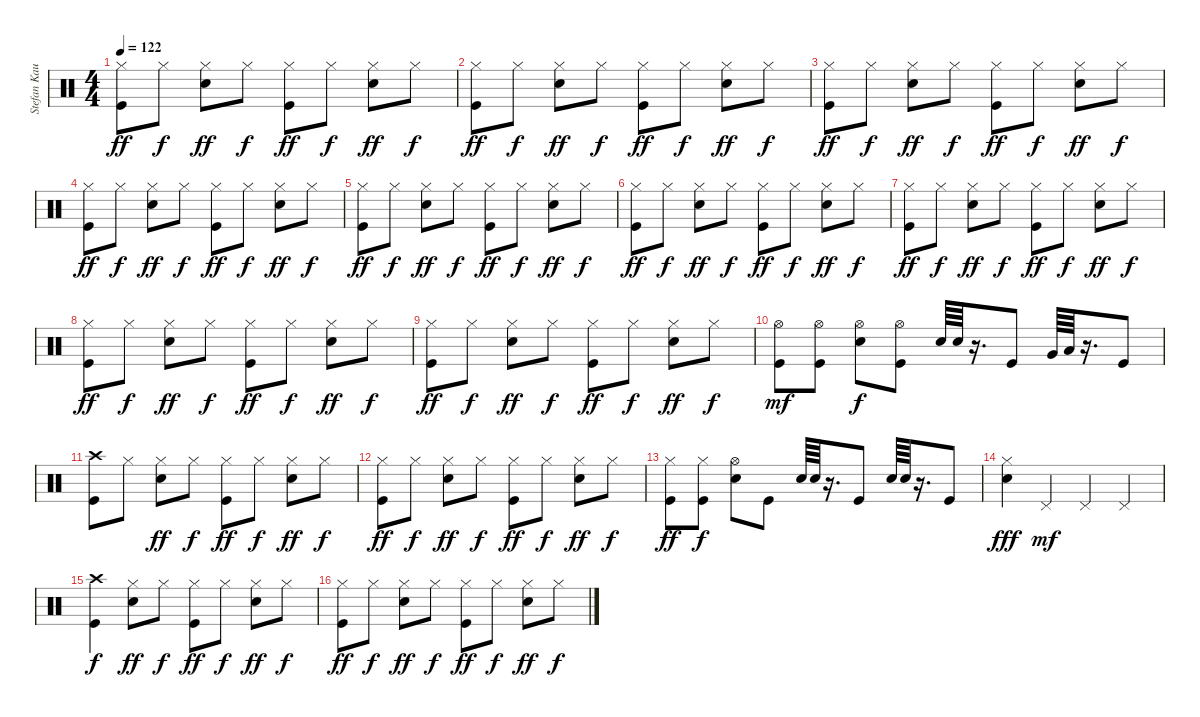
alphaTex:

\track ("Stefan Kaufmann" "Stefan Kau") {instrument percussion}
\staff {score}
\articulation defaults
\ts (4 4)
\tempo 122
\clef neutral
\ks c
("Hi-Hat (closed)" "Kick (hit)").8{dy ff} "Hi-Hat (closed)".8{dy f} ("Hi-Hat (closed)" "Snare (hit) 2").8{dy ff} "Hi-Hat (closed)".8{dy f} ("Hi-Hat (closed)" "Kick (hit)").8{dy ff} "Hi-Hat (closed)".8{dy f} ("Hi-Hat (closed)" "Snare (hit) 2").8{dy ff} "Hi-Hat (closed)".8{dy f} |
("Hi-Hat (closed)" "Kick (hit)").8{dy ff} "Hi-Hat (closed)".8{dy f} ("Hi-Hat (closed)" "Snare (hit) 2").8{dy ff} "Hi-Hat (closed)".8{dy f} ("Hi-Hat (closed)" "Kick (hit)").8{dy ff} "Hi-Hat (closed)".8{dy f} ("Hi-Hat (closed)" "Snare (hit) 2").8{dy ff} "Hi-Hat (closed)".8{dy f} |
("Hi-Hat (closed)" "Kick (hit)").8{dy ff} "Hi-Hat (closed)".8{dy f} ("Hi-Hat (closed)" "Snare (hit) 2").8{dy ff} "Hi-Hat (closed)".8{dy f} ("Hi-Hat (closed)" "Kick (hit)").8{dy ff} "Hi-Hat (closed)".8{dy f} ("Hi-Hat (closed)" "Snare (hit) 2").8{dy ff} "Hi-Hat (closed)".8{dy f} |
("Hi-Hat (closed)" "Kick (hit)").8{dy ff} "Hi-Hat (closed)".8{dy f} ("Hi-Hat (closed)" "Snare (hit) 2").8{dy ff} "Hi-Hat (closed)".8{dy f} ("Hi-Hat (closed)" "Kick (hit)").8{dy ff} "Hi-Hat (closed)".8{dy f} ("Hi-Hat (closed)" "Snare (hit) 2").8{dy ff} "Hi-Hat (closed)".8{dy f} |
("Hi-Hat (closed)" "Kick (hit)").8{dy ff} "Hi-Hat (closed)".8{dy f} ("Hi-Hat (closed)" "Snare (hit) 2").8{dy ff} "Hi-Hat (closed)".8{dy f} ("Hi-Hat (closed)" "Kick (hit)").8{dy ff} "Hi-Hat (closed)".8{dy f} ("Hi-Hat (closed)" "Snare (hit) 2").8{dy ff} "Hi-Hat (closed)".8{dy f} |
("Hi-Hat (closed)" "Kick (hit)").8{dy ff} "Hi-Hat (closed)".8{dy f} ("Hi-Hat (closed)" "Snare (hit) 2").8{dy ff} "Hi-Hat (closed)".8{dy f} ("Hi-Hat (closed)" "Kick (hit)").8{dy ff} "Hi-Hat (closed)".8{dy f} ("Hi-Hat (closed)" "Snare (hit) 2").8{dy ff} "Hi-Hat (closed)".8{dy f} |
("Hi-Hat (closed)" "Kick (hit)").8{dy ff} "Hi-Hat (closed)".8{dy f} ("Hi-Hat (closed)" "Snare (hit) 2").8{dy ff} "Hi-Hat (closed)".8{dy f} ("Hi-Hat (closed)" "Kick (hit)").8{dy ff} "Hi-Hat (closed)".8{dy f} ("Hi-Hat (closed)" "Snare (hit) 2").8{dy ff} "Hi-Hat (closed)".8{dy f} |
("Hi-Hat (closed)" "Kick (hit)").8{dy ff} "Hi-Hat (closed)".8{dy f} ("Hi-Hat (closed)" "Snare (hit) 2").8{dy ff} "Hi-Hat (closed)".8{dy f} ("Hi-Hat (closed)" "Kick (hit)").8{dy ff} "Hi-Hat (closed)".8{dy f} ("Hi-Hat (closed)" "Snare (hit) 2").8{dy ff} "Hi-Hat (closed)".8{dy f} |
("Hi-Hat (closed)" "Kick (hit)").8{dy ff} "Hi-Hat (closed)".8{dy f} ("Hi-Hat (closed)" "Snare (hit) 2").8{dy ff} "Hi-Hat (closed)".8{dy f} ("Hi-Hat (closed)" "Kick (hit)").8{dy ff} "Hi-Hat (closed)".8{dy f} ("Hi-Hat (closed)" "Snare (hit) 2").8{dy ff} "Hi-Hat (closed)".8{dy f} |
("Hi-Hat (open)" "Kick (hit)").8{dy mf} ("Hi-Hat (open)" "Kick (hit)").8 ("Hi-Hat (open)" "Snare (hit) 2").8{dy f} ("Hi-Hat (open)" "Kick (hit)").8 "Snare (hit) 2".64 "Snare (hit) 2".64 r.16{d} "Kick (hit)".8 "Very Low Tom (hit)".64 "Low Tom (hit)".64 r.16{d} "Kick (hit)".8 |
("Crash high (hit)" "Kick (hit)").8 "Hi-Hat (closed)".8 ("Hi-Hat (closed)" "Snare (hit) 2").8{dy ff} "Hi-Hat (closed)".8{dy f} ("Hi-Hat (closed)" "Kick (hit)").8{dy ff} "Hi-Hat (closed)".8{dy f} ("Hi-Hat (closed)" "Snare (hit) 2").8{dy ff} "Hi-Hat (closed)".8{dy f} |
("Hi-Hat (closed)" "Kick (hit)").8{dy ff} "Hi-Hat (closed)".8{dy f} ("Hi-Hat (closed)" "Snare (hit) 2").8{dy ff} "Hi-Hat (closed)".8{dy f} ("Hi-Hat (closed)" "Kick (hit)").8{dy ff} "Hi-Hat (closed)".8{dy f} ("Hi-Hat (closed)" "Snare (hit) 2").8{dy ff} "Hi-Hat (closed)".8{dy f} |
("Hi-Hat (closed)" "Kick (hit)").8{dy ff} ("Hi-Hat (closed)" "Kick (hit)").8{dy f} ("Hi-Hat (open)" "Snare (hit) 2").8 "Kick (hit)".8 "Snare (hit) 2".64 "Snare (hit) 2".64 r.16{d} "Kick (hit)".8 "Snare (hit) 2".64 "Snare (hit) 2".64 r.16{d} "Kick (hit)".8 |
("Hi-Hat (closed)" "Snare (hit) 2").4{dy fff} "Pedal Hi-Hat (hit)".4{dy mf} "Pedal Hi-Hat (hit)".4 "Pedal Hi-Hat (hit)".4 |
("Crash high (hit)" "Kick (hit)").4{dy f} ("Hi-Hat (closed)" "Snare (hit) 2").8{dy ff} "Hi-Hat (closed)".8{dy f} ("Hi-Hat (closed)" "Kick (hit)").8{dy ff} "Hi-Hat (closed)".8{dy f} ("Hi-Hat (closed)" "Snare (hit) 2").8{dy ff} "Hi-Hat (closed)".8{dy f} |
("Hi-Hat (closed)" "Kick (hit)").8{dy ff} "Hi-Hat (closed)".8{dy f} ("Hi-Hat (closed)" "Snare (hit) 2").8{dy ff} "Hi-Hat (closed)".8{dy f} ("Hi-Hat (closed)" "Kick (hit)").8{dy ff} "Hi-Hat (closed)".8{dy f} ("Hi-Hat (closed)" "Snare (hit) 2").8{dy ff} "Hi-Hat (closed)".8{dy f}
